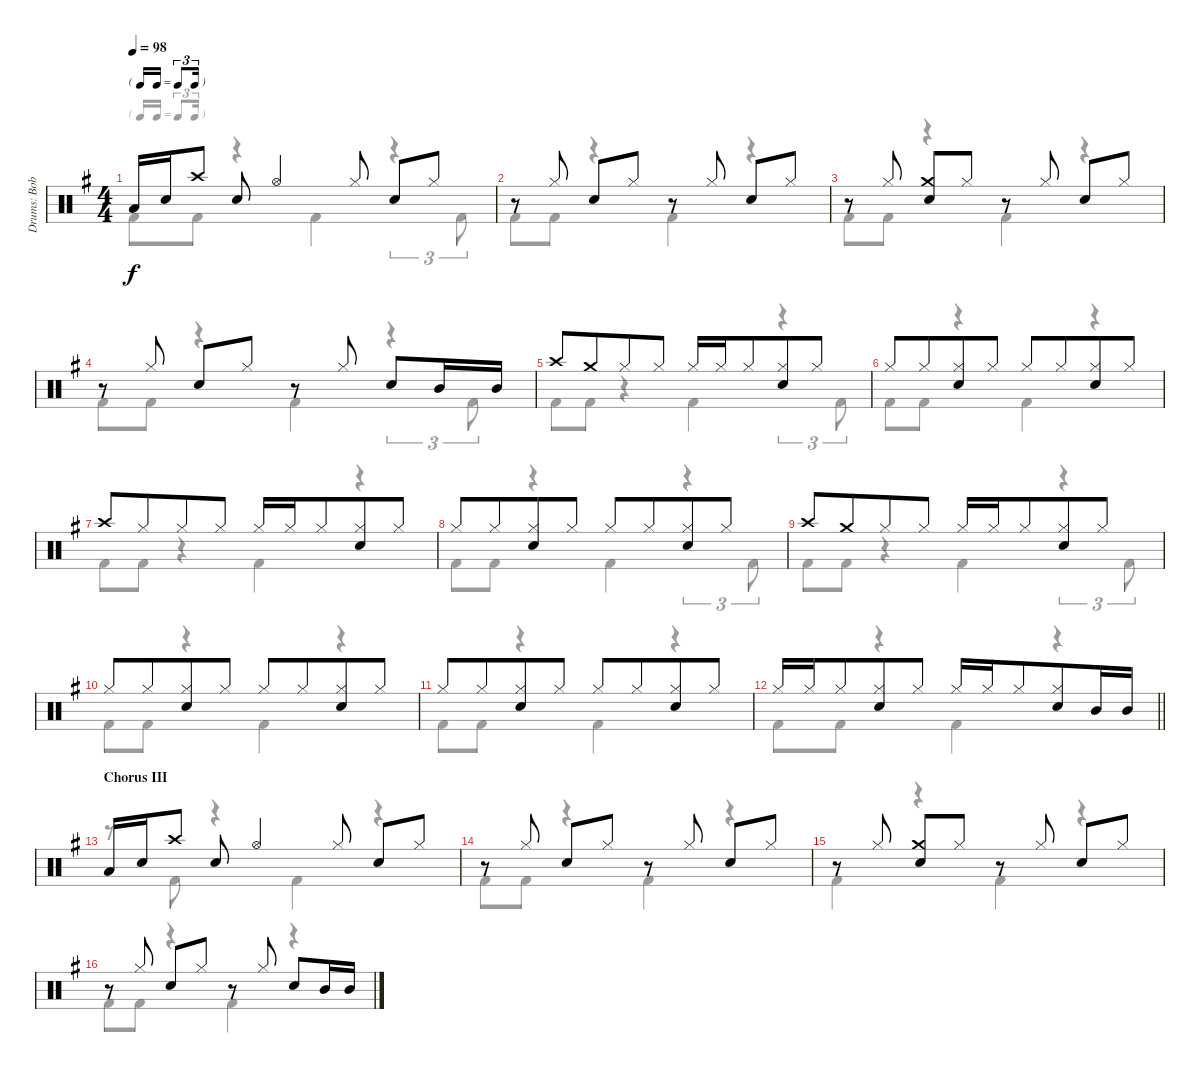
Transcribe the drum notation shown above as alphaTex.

\track ("Drums: Bobby" "Drums: Bob") {instrument percussion}
\staff {score}
\articulation defaults
\voice
\ts (4 4)
\tf triplet16th
\tempo 98
\clef neutral
\ks g "Low Tom (hit)".16{dy f} "Snare (hit) 2".16 "Crash high (hit)".8 "Snare (hit) 2".8 "Hi-Hat (open)".4 "Hi-Hat (closed)".8 "Snare (hit) 2".8 "Hi-Hat (closed)".8
|
r.8 "Hi-Hat (closed)".8 "Snare (hit) 2".8 "Hi-Hat (closed)".8 r.8 "Hi-Hat (closed)".8 "Snare (hit) 2".8 "Hi-Hat (closed)".8 |
r.8 "Hi-Hat (closed)".8 ("Crash medium (hit)" "Snare (hit) 2").8 "Hi-Hat (closed)".8 r.8 "Hi-Hat (closed)".8 "Snare (hit) 2".8 "Hi-Hat (closed)".8 |
r.8 "Hi-Hat (closed)".8 "Snare (hit) 2".8 "Hi-Hat (closed)".8 r.8 "Hi-Hat (closed)".8 "Snare (hit) 2".8 "Mid Tom (hit)".16 "Mid Tom (hit)".16 |
"Crash high (hit)".8 "Crash medium (hit)".8{beam merge} "Hi-Hat (closed)".8 "Hi-Hat (closed)".8 "Hi-Hat (closed)".16 "Hi-Hat (closed)".16 "Hi-Hat (closed)".8{beam merge} ("Hi-Hat (closed)" "Snare (hit) 2").8 "Hi-Hat (closed)".8 |
"Hi-Hat (closed)".8 "Hi-Hat (closed)".8{beam merge} ("Hi-Hat (closed)" "Snare (hit) 2").8 "Hi-Hat (closed)".8 "Hi-Hat (closed)".8 "Hi-Hat (closed)".8{beam merge} ("Hi-Hat (closed)" "Snare (hit) 2").8 "Hi-Hat (closed)".8 |
"Crash high (hit)".8 "Hi-Hat (closed)".8{beam merge} "Hi-Hat (closed)".8 "Hi-Hat (closed)".8 "Hi-Hat (closed)".16 "Hi-Hat (closed)".16 "Hi-Hat (closed)".8{beam merge} ("Hi-Hat (closed)" "Snare (hit) 2").8 "Hi-Hat (closed)".8 |
"Hi-Hat (closed)".8 "Hi-Hat (closed)".8{beam merge} ("Hi-Hat (closed)" "Snare (hit) 2").8 "Hi-Hat (closed)".8 "Hi-Hat (closed)".8 "Hi-Hat (closed)".8{beam merge} ("Hi-Hat (closed)" "Snare (hit) 2").8 "Hi-Hat (closed)".8 |
"Crash high (hit)".8 "Crash medium (hit)".8{beam merge} "Hi-Hat (closed)".8 "Hi-Hat (closed)".8 "Hi-Hat (closed)".16 "Hi-Hat (closed)".16 "Hi-Hat (closed)".8{beam merge} ("Hi-Hat (closed)" "Snare (hit) 2").8 "Hi-Hat (closed)".8 |
"Hi-Hat (closed)".8 "Hi-Hat (closed)".8{beam merge} ("Hi-Hat (closed)" "Snare (hit) 2").8 "Hi-Hat (closed)".8 "Hi-Hat (closed)".8 "Hi-Hat (closed)".8{beam merge} ("Hi-Hat (closed)" "Snare (hit) 2").8 "Hi-Hat (closed)".8 |
"Hi-Hat (closed)".8 "Hi-Hat (closed)".8{beam merge} ("Hi-Hat (closed)" "Snare (hit) 2").8 "Hi-Hat (closed)".8 "Hi-Hat (closed)".8 "Hi-Hat (closed)".8{beam merge} ("Hi-Hat (closed)" "Snare (hit) 2").8 "Hi-Hat (closed)".8 |
\barLineRight lightlight "Hi-Hat (closed)".16 "Hi-Hat (closed)".16 "Hi-Hat (closed)".8{beam merge}
("Hi-Hat (closed)" "Snare (hit) 2").8 "Hi-Hat (closed)".8 "Hi-Hat (closed)".16 "Hi-Hat (closed)".16 "Hi-Hat (closed)".8{beam merge} ("Hi-Hat (closed)" "Snare (hit) 2").8 "Mid Tom (hit)".16 "Mid Tom (hit)".16 |
\section ("" "Chorus III")
"Low Tom (hit)".16 "Snare (hit) 2".16 "Crash high (hit)".8 "Snare (hit) 2".8 "Hi-Hat (open)".4 "Hi-Hat (closed)".8 "Snare (hit) 2".8 "Hi-Hat (closed)".8 |
r.8 "Hi-Hat (closed)".8 "Snare (hit) 2".8 "Hi-Hat (closed)".8 r.8 "Hi-Hat (closed)".8 "Snare (hit) 2".8 "Hi-Hat (closed)".8 |
r.8 "Hi-Hat (closed)".8 ("Crash medium (hit)" "Snare (hit) 2").8 "Hi-Hat (closed)".8 r.8 "Hi-Hat (closed)".8 "Snare (hit) 2".8 "Hi-Hat (closed)".8 |
r.8 "Hi-Hat (closed)".8 "Snare (hit) 2".8 "Hi-Hat (closed)".8 r.8 "Hi-Hat (closed)".8 "Snare (hit) 2".8 "Mid Tom (hit)".16 "Mid Tom (hit)".16
\voice
\clef neutral
\ottava regular
\simile none
\ks g "Kick (hit) 2".8{dy f} "Kick (hit) 2".8
r.4 "Kick (hit) 2".4 r.4{tu (3 2)} "Kick (hit) 2".8{tu (3 2)} |
"Kick (hit) 2".8 "Kick (hit) 2".8 r.4 "Kick (hit) 2".4 r.4 |
"Kick (hit) 2".8 "Kick (hit) 2".8 r.4 "Kick (hit) 2".4 r.4 |
"Kick (hit) 2".8 "Kick (hit) 2".8 r.4 "Kick (hit) 2".4 r.4{tu (3 2)} "Kick (hit) 2".8{tu (3 2)} |
"Kick (hit) 2".8 "Kick (hit) 2".8 r.4 "Kick (hit) 2".4 r.4{tu (3 2)} "Kick (hit) 2".8{tu (3 2)} |
"Kick (hit) 2".8 "Kick (hit) 2".8 r.4 "Kick (hit) 2".4 r.4 |
"Kick (hit) 2".8 "Kick (hit) 2".8 r.4 "Kick (hit) 2".4 r.4 |
"Kick (hit) 2".8 "Kick (hit) 2".8 r.4 "Kick (hit) 2".4 r.4{tu (3 2)} "Kick (hit) 2".8{tu (3 2)} |
"Kick (hit) 2".8 "Kick (hit) 2".8 r.4 "Kick (hit) 2".4 r.4{tu (3 2)} "Kick (hit) 2".8{tu (3 2)} |
"Kick (hit) 2".8 "Kick (hit) 2".8 r.4 "Kick (hit) 2".4 r.4 |
"Kick (hit) 2".8 "Kick (hit) 2".8 r.4 "Kick (hit) 2".4 r.4 |
\barLineRight lightlight "Kick (hit) 2".8 "Kick (hit) 2".8
r.4 "Kick (hit) 2".4 r.4 |
r.8 "Kick (hit) 2".8 r.4 "Kick (hit) 2".4 r.4 |
"Kick (hit) 2".8 "Kick (hit) 2".8 r.4 "Kick (hit) 2".4 r.4 |
"Kick (hit) 2".4 r.4 "Kick (hit) 2".4 r.4 |
"Kick (hit) 2".8 "Kick (hit) 2".8 r.4 "Kick (hit) 2".4 r.4
